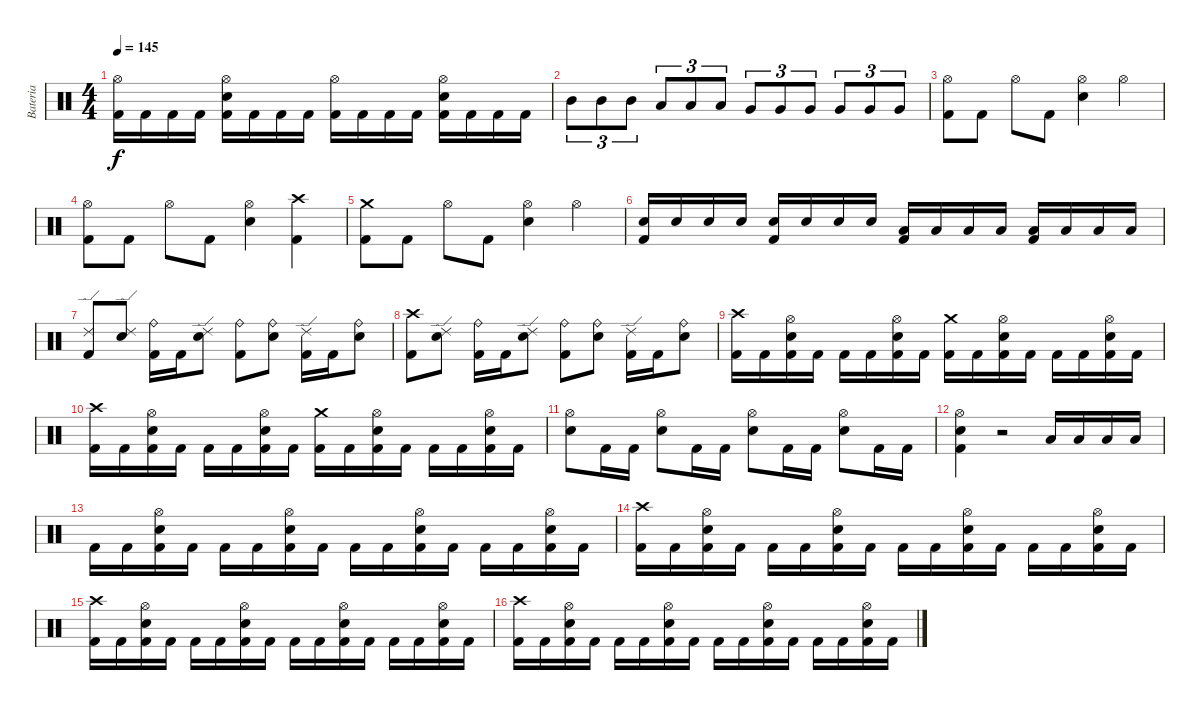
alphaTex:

\track ("Bateria" "Bateria") {instrument percussion}
\staff {score}
\articulation defaults
\ts (4 4)
\tempo 145
\clef neutral
\ks c
("Hi-Hat (open)" "Kick (hit) 2").16{dy f} "Kick (hit) 2".16 "Kick (hit) 2".16 "Kick (hit) 2".16 ("Snare (hit) 2" "Hi-Hat (open)" "Kick (hit) 2").16 "Kick (hit) 2".16 "Kick (hit) 2".16 "Kick (hit) 2".16 ("Hi-Hat (open)" "Kick (hit) 2").16 "Kick (hit) 2".16 "Kick (hit) 2".16 "Kick (hit) 2".16 ("Snare (hit) 2" "Hi-Hat (open)" "Kick (hit) 2").16 "Kick (hit) 2".16 "Kick (hit) 2".16 "Kick (hit) 2".16 |
"Mid Tom (hit)".8{tu (3 2)} "Mid Tom (hit)".8{tu (3 2)} "Mid Tom (hit)".8{tu (3 2)} "Low Tom (hit)".8{tu (3 2)} "Low Tom (hit)".8{tu (3 2)} "Low Tom (hit)".8{tu (3 2)} "Very Low Tom (hit)".8{tu (3 2)} "Very Low Tom (hit)".8{tu (3 2)} "Very Low Tom (hit)".8{tu (3 2)} "Very Low Tom (hit)".8{tu (3 2)} "Very Low Tom (hit)".8{tu (3 2)} "Very Low Tom (hit)".8{tu (3 2)} |
("Kick (hit) 2" "Hi-Hat (open)").8 "Kick (hit) 2".8 "Hi-Hat (open)".8 "Kick (hit) 2".8 ("Snare (hit) 2" "Hi-Hat (open)").4 "Hi-Hat (open)".4 |
("Kick (hit) 2" "Hi-Hat (open)").8 "Kick (hit) 2".8 "Hi-Hat (open)".8 "Kick (hit) 2".8 ("Snare (hit) 2" "Hi-Hat (open)").4 ("Crash high (hit)" "Kick (hit) 2").4 |
("Kick (hit) 2" "Crash medium (hit)").8 "Kick (hit) 2".8 "Hi-Hat (open)".8 "Kick (hit) 2".8 ("Snare (hit) 2" "Hi-Hat (open)").4 "Hi-Hat (open)".4 |
("Kick (hit) 2" "Snare (hit) 2").16 "Snare (hit) 2".16 "Snare (hit) 2".16 "Snare (hit) 2".16 ("Kick (hit) 2" "Snare (hit) 2").16 "Snare (hit) 2".16 "Snare (hit) 2".16 "Snare (hit) 2".16 ("Kick (hit) 2" "Low Tom (hit)").16 "Low Tom (hit)".16 "Low Tom (hit)".16 "Low Tom (hit)".16 ("Kick (hit) 2" "Low Tom (hit)").16 "Low Tom (hit)".16 "Low Tom (hit)".16 "Low Tom (hit)".16 |
("Ride (edge) 2" "Kick (hit) 2").8 ("Ride (edge) 2" "Snare (hit) 2").8 ("Ride (bell)" "Kick (hit) 2").16 "Kick (hit) 2".16 ("Ride (edge) 2" "Snare (hit) 2").8 ("Ride (bell)" "Kick (hit) 2").8 ("Ride (bell)" "Snare (hit) 2").8 ("Ride (edge) 2" "Kick (hit) 2").16 "Kick (hit) 2".16 ("Ride (bell)" "Snare (hit) 2").8 |
("Crash high (hit)" "Kick (hit) 2").8 ("Ride (edge) 2" "Snare (hit) 2").8 ("Ride (bell)" "Kick (hit) 2").16 "Kick (hit) 2".16 ("Ride (edge) 2" "Snare (hit) 2").8 ("Ride (bell)" "Kick (hit) 2").8 ("Ride (bell)" "Snare (hit) 2").8 ("Ride (edge) 2" "Kick (hit) 2").16 "Kick (hit) 2".16 ("Ride (bell)" "Snare (hit) 2").8 |
("Crash high (hit)" "Kick (hit) 2").16 "Kick (hit) 2".16 ("Hi-Hat (open)" "Snare (hit) 2" "Kick (hit) 2").16 "Kick (hit) 2".16 "Kick (hit) 2".16 "Kick (hit) 2".16 ("Hi-Hat (open)" "Snare (hit) 2" "Kick (hit) 2").16 "Kick (hit) 2".16 ("Crash medium (hit)" "Kick (hit) 2").16 "Kick (hit) 2".16 ("Hi-Hat (open)" "Snare (hit) 2" "Kick (hit) 2").16 "Kick (hit) 2".16 "Kick (hit) 2".16 "Kick (hit) 2".16 ("Hi-Hat (open)" "Snare (hit) 2" "Kick (hit) 2").16 "Kick (hit) 2".16 |
("Crash high (hit)" "Kick (hit) 2").16 "Kick (hit) 2".16 ("Hi-Hat (open)" "Snare (hit) 2" "Kick (hit) 2").16 "Kick (hit) 2".16 "Kick (hit) 2".16 "Kick (hit) 2".16 ("Hi-Hat (open)" "Snare (hit) 2" "Kick (hit) 2").16 "Kick (hit) 2".16 ("Crash medium (hit)" "Kick (hit) 2").16 "Kick (hit) 2".16 ("Hi-Hat (open)" "Snare (hit) 2" "Kick (hit) 2").16 "Kick (hit) 2".16 "Kick (hit) 2".16 "Kick (hit) 2".16 ("Hi-Hat (open)" "Snare (hit) 2" "Kick (hit) 2").16 "Kick (hit) 2".16 |
("Hi-Hat (open)" "Snare (hit) 2").8 "Kick (hit) 2".16 "Kick (hit) 2".16 ("Hi-Hat (open)" "Snare (hit) 2").8 "Kick (hit) 2".16 "Kick (hit) 2".16 ("Hi-Hat (open)" "Snare (hit) 2").8 "Kick (hit) 2".16 "Kick (hit) 2".16 ("Hi-Hat (open)" "Snare (hit) 2").8 "Kick (hit) 2".16 "Kick (hit) 2".16 |
("Hi-Hat (open)" "Snare (hit) 2" "Kick (hit) 2").4 r.2 "Low Tom (hit)".16 "Low Tom (hit)".16 "Low Tom (hit)".16 "Low Tom (hit)".16 |
"Kick (hit) 2".16 "Kick (hit) 2".16 ("Snare (hit) 2" "Hi-Hat (open)" "Kick (hit) 2").16 "Kick (hit) 2".16 "Kick (hit) 2".16 "Kick (hit) 2".16 ("Snare (hit) 2" "Hi-Hat (open)" "Kick (hit) 2").16 "Kick (hit) 2".16 "Kick (hit) 2".16 "Kick (hit) 2".16 ("Snare (hit) 2" "Hi-Hat (open)" "Kick (hit) 2").16 "Kick (hit) 2".16 "Kick (hit) 2".16 "Kick (hit) 2".16 ("Snare (hit) 2" "Hi-Hat (open)" "Kick (hit) 2").16 "Kick (hit) 2".16 |
("Crash high (hit)" "Kick (hit) 2").16 "Kick (hit) 2".16 ("Snare (hit) 2" "Hi-Hat (open)" "Kick (hit) 2").16 "Kick (hit) 2".16 "Kick (hit) 2".16 "Kick (hit) 2".16 ("Snare (hit) 2" "Hi-Hat (open)" "Kick (hit) 2").16 "Kick (hit) 2".16 "Kick (hit) 2".16 "Kick (hit) 2".16 ("Snare (hit) 2" "Hi-Hat (open)" "Kick (hit) 2").16 "Kick (hit) 2".16 "Kick (hit) 2".16 "Kick (hit) 2".16 ("Snare (hit) 2" "Hi-Hat (open)" "Kick (hit) 2").16 "Kick (hit) 2".16 |
("Crash high (hit)" "Kick (hit) 2").16 "Kick (hit) 2".16 ("Snare (hit) 2" "Hi-Hat (open)" "Kick (hit) 2").16 "Kick (hit) 2".16 "Kick (hit) 2".16 "Kick (hit) 2".16 ("Snare (hit) 2" "Hi-Hat (open)" "Kick (hit) 2").16 "Kick (hit) 2".16 "Kick (hit) 2".16 "Kick (hit) 2".16 ("Snare (hit) 2" "Hi-Hat (open)" "Kick (hit) 2").16 "Kick (hit) 2".16 "Kick (hit) 2".16 "Kick (hit) 2".16 ("Snare (hit) 2" "Hi-Hat (open)" "Kick (hit) 2").16 "Kick (hit) 2".16 |
("Crash high (hit)" "Kick (hit) 2").16 "Kick (hit) 2".16 ("Snare (hit) 2" "Hi-Hat (open)" "Kick (hit) 2").16 "Kick (hit) 2".16 "Kick (hit) 2".16 "Kick (hit) 2".16 ("Snare (hit) 2" "Hi-Hat (open)" "Kick (hit) 2").16 "Kick (hit) 2".16 "Kick (hit) 2".16 "Kick (hit) 2".16 ("Snare (hit) 2" "Hi-Hat (open)" "Kick (hit) 2").16 "Kick (hit) 2".16 "Kick (hit) 2".16 "Kick (hit) 2".16 ("Snare (hit) 2" "Hi-Hat (open)" "Kick (hit) 2").16 "Kick (hit) 2".16
